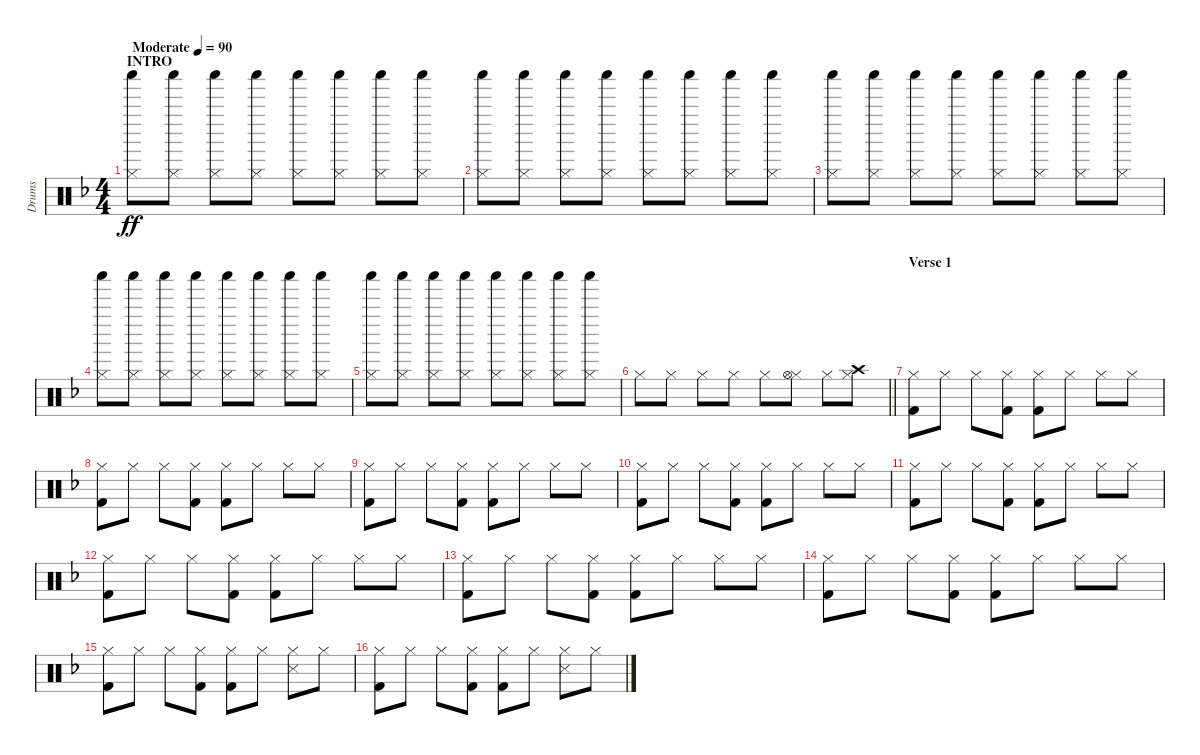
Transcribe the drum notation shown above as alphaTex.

\track ("Drums" "Drums") {instrument percussion}
\staff {score}
\articulation defaults
\ts (4 4)
\section ("" "INTRO")
\tempo (90 "Moderate")
\clef neutral
\ks f
("Hi-Hat (closed)" "Shaker (hit)").8{dy ff} ("Hi-Hat (closed)" "Shaker (hit)").8 ("Hi-Hat (closed)" "Shaker (hit)").8 ("Hi-Hat (closed)" "Shaker (hit)").8 ("Hi-Hat (closed)" "Shaker (hit)").8 ("Hi-Hat (closed)" "Shaker (hit)").8 ("Hi-Hat (closed)" "Shaker (hit)").8 ("Hi-Hat (closed)" "Shaker (hit)").8 |
("Hi-Hat (closed)" "Shaker (hit)").8 ("Hi-Hat (closed)" "Shaker (hit)").8 ("Hi-Hat (closed)" "Shaker (hit)").8 ("Hi-Hat (closed)" "Shaker (hit)").8 ("Hi-Hat (closed)" "Shaker (hit)").8 ("Hi-Hat (closed)" "Shaker (hit)").8 ("Hi-Hat (closed)" "Shaker (hit)").8 ("Hi-Hat (closed)" "Shaker (hit)").8 |
("Hi-Hat (closed)" "Shaker (hit)").8 ("Hi-Hat (closed)" "Shaker (hit)").8 ("Hi-Hat (closed)" "Shaker (hit)").8 ("Hi-Hat (closed)" "Shaker (hit)").8 ("Hi-Hat (closed)" "Shaker (hit)").8 ("Hi-Hat (closed)" "Shaker (hit)").8 ("Hi-Hat (closed)" "Shaker (hit)").8 ("Hi-Hat (closed)" "Shaker (hit)").8 |
("Hi-Hat (closed)" "Shaker (hit)").8 ("Hi-Hat (closed)" "Shaker (hit)").8 ("Hi-Hat (closed)" "Shaker (hit)").8 ("Hi-Hat (closed)" "Shaker (hit)").8 ("Hi-Hat (closed)" "Shaker (hit)").8 ("Hi-Hat (closed)" "Shaker (hit)").8 ("Hi-Hat (closed)" "Shaker (hit)").8 ("Hi-Hat (closed)" "Shaker (hit)").8 |
("Hi-Hat (closed)" "Shaker (hit)").8 ("Hi-Hat (closed)" "Shaker (hit)").8 ("Hi-Hat (closed)" "Shaker (hit)").8 ("Hi-Hat (closed)" "Shaker (hit)").8 ("Hi-Hat (closed)" "Shaker (hit)").8 ("Hi-Hat (closed)" "Shaker (hit)").8 ("Hi-Hat (closed)" "Shaker (hit)").8 ("Hi-Hat (closed)" "Shaker (hit)").8 |
\barLineRight lightlight "Hi-Hat (closed)".8 "Hi-Hat (closed)".8 "Hi-Hat (closed)".8 "Hi-Hat (closed)".8 "Hi-Hat (closed)".8
("Hi-Hat (closed)" "Hi-Hat (open)").8 "Hi-Hat (closed)".8 ("Hi-Hat (closed)" "Crash high (hit)").8 |
\section ("" "Verse 1")
("Hi-Hat (closed)" "Kick (hit) 2").8 "Hi-Hat (closed)".8 "Hi-Hat (closed)".8 ("Hi-Hat (closed)" "Kick (hit) 2").8 ("Hi-Hat (closed)" "Kick (hit) 2").8 "Hi-Hat (closed)".8 "Hi-Hat (closed)".8 "Hi-Hat (closed)".8 |
("Hi-Hat (closed)" "Kick (hit) 2").8 "Hi-Hat (closed)".8 "Hi-Hat (closed)".8 ("Hi-Hat (closed)" "Kick (hit) 2").8 ("Hi-Hat (closed)" "Kick (hit) 2").8 "Hi-Hat (closed)".8 "Hi-Hat (closed)".8 "Hi-Hat (closed)".8 |
("Hi-Hat (closed)" "Kick (hit) 2").8 "Hi-Hat (closed)".8 "Hi-Hat (closed)".8 ("Hi-Hat (closed)" "Kick (hit) 2").8 ("Hi-Hat (closed)" "Kick (hit) 2").8 "Hi-Hat (closed)".8 "Hi-Hat (closed)".8 "Hi-Hat (closed)".8 |
("Hi-Hat (closed)" "Kick (hit) 2").8 "Hi-Hat (closed)".8 "Hi-Hat (closed)".8 ("Hi-Hat (closed)" "Kick (hit) 2").8 ("Hi-Hat (closed)" "Kick (hit) 2").8 "Hi-Hat (closed)".8 "Hi-Hat (closed)".8 "Hi-Hat (closed)".8 |
("Hi-Hat (closed)" "Kick (hit) 2").8 "Hi-Hat (closed)".8 "Hi-Hat (closed)".8 ("Hi-Hat (closed)" "Kick (hit) 2").8 ("Hi-Hat (closed)" "Kick (hit) 2").8 "Hi-Hat (closed)".8 "Hi-Hat (closed)".8 "Hi-Hat (closed)".8 |
("Hi-Hat (closed)" "Kick (hit) 2").8 "Hi-Hat (closed)".8 "Hi-Hat (closed)".8 ("Hi-Hat (closed)" "Kick (hit) 2").8 ("Hi-Hat (closed)" "Kick (hit) 2").8 "Hi-Hat (closed)".8 "Hi-Hat (closed)".8 "Hi-Hat (closed)".8 |
("Hi-Hat (closed)" "Kick (hit) 2").8 "Hi-Hat (closed)".8 "Hi-Hat (closed)".8 ("Hi-Hat (closed)" "Kick (hit) 2").8 ("Hi-Hat (closed)" "Kick (hit) 2").8 "Hi-Hat (closed)".8 "Hi-Hat (closed)".8 "Hi-Hat (closed)".8 |
("Hi-Hat (closed)" "Kick (hit) 2").8 "Hi-Hat (closed)".8 "Hi-Hat (closed)".8 ("Hi-Hat (closed)" "Kick (hit) 2").8 ("Hi-Hat (closed)" "Kick (hit) 2").8 "Hi-Hat (closed)".8 "Hi-Hat (closed)".8 "Hi-Hat (closed)".8 |
("Hi-Hat (closed)" "Kick (hit) 2").8 "Hi-Hat (closed)".8 "Hi-Hat (closed)".8 ("Hi-Hat (closed)" "Kick (hit) 2").8 ("Hi-Hat (closed)" "Kick (hit) 2").8 "Hi-Hat (closed)".8 ("Hi-Hat (closed)" "Snare (side stick) 3").8 "Hi-Hat (closed)".8 |
("Hi-Hat (closed)" "Kick (hit) 2").8 "Hi-Hat (closed)".8 "Hi-Hat (closed)".8 ("Hi-Hat (closed)" "Kick (hit) 2").8 ("Hi-Hat (closed)" "Kick (hit) 2").8 "Hi-Hat (closed)".8 ("Hi-Hat (closed)" "Snare (side stick) 3").8 "Hi-Hat (closed)".8
